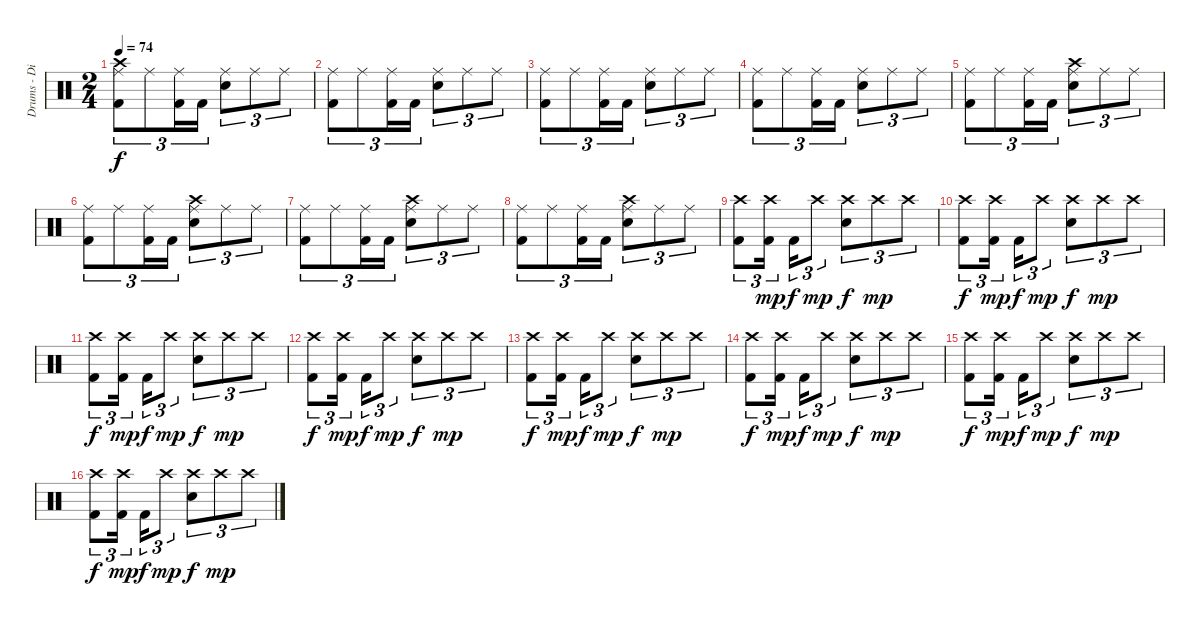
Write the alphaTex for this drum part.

\track ("Drums - Dino Campanella" "Drums - Di") {instrument percussion}
\staff {score}
\articulation defaults
\ts (2 4)
\tempo 74
\clef neutral
\ks c
("Ride (middle)" "Crash high (hit)" "Kick (hit) 2").8{tu (3 2) dy f} "Ride (middle)".8{tu (3 2)} ("Ride (middle)" "Kick (hit) 2").16{tu (3 2)} "Kick (hit) 2".16{tu (3 2)} ("Ride (middle)" "Snare (hit) 2").8{tu (3 2)} "Ride (middle)".8{tu (3 2)} "Ride (middle)".8{tu (3 2)} |
("Ride (middle)" "Kick (hit) 2").8{tu (3 2)} "Ride (middle)".8{tu (3 2)} ("Ride (middle)" "Kick (hit) 2").16{tu (3 2)} "Kick (hit) 2".16{tu (3 2)} ("Ride (middle)" "Snare (hit) 2").8{tu (3 2)} "Ride (middle)".8{tu (3 2)} "Ride (middle)".8{tu (3 2)} |
("Ride (middle)" "Kick (hit) 2").8{tu (3 2)} "Ride (middle)".8{tu (3 2)} ("Ride (middle)" "Kick (hit) 2").16{tu (3 2)} "Kick (hit) 2".16{tu (3 2)} ("Ride (middle)" "Snare (hit) 2").8{tu (3 2)} "Ride (middle)".8{tu (3 2)} "Ride (middle)".8{tu (3 2)} |
("Ride (middle)" "Kick (hit) 2").8{tu (3 2)} "Ride (middle)".8{tu (3 2)} ("Ride (middle)" "Kick (hit) 2").16{tu (3 2)} "Kick (hit) 2".16{tu (3 2)} ("Ride (middle)" "Snare (hit) 2").8{tu (3 2)} "Ride (middle)".8{tu (3 2)} "Ride (middle)".8{tu (3 2)} |
("Ride (middle)" "Kick (hit) 2").8{tu (3 2)} "Ride (middle)".8{tu (3 2)} ("Ride (middle)" "Kick (hit) 2").16{tu (3 2)} "Kick (hit) 2".16{tu (3 2)} ("Ride (middle)" "Crash high (hit)" "Snare (hit) 2").8{tu (3 2)} "Ride (middle)".8{tu (3 2)} "Ride (middle)".8{tu (3 2)} |
("Ride (middle)" "Kick (hit) 2").8{tu (3 2)} "Ride (middle)".8{tu (3 2)} ("Ride (middle)" "Kick (hit) 2").16{tu (3 2)} "Kick (hit) 2".16{tu (3 2)} ("Ride (middle)" "Crash high (hit)" "Snare (hit) 2").8{tu (3 2)} "Ride (middle)".8{tu (3 2)} "Ride (middle)".8{tu (3 2)} |
("Ride (middle)" "Kick (hit) 2").8{tu (3 2)} "Ride (middle)".8{tu (3 2)} ("Ride (middle)" "Kick (hit) 2").16{tu (3 2)} "Kick (hit) 2".16{tu (3 2)} ("Ride (middle)" "Crash high (hit)" "Snare (hit) 2").8{tu (3 2)} "Ride (middle)".8{tu (3 2)} "Ride (middle)".8{tu (3 2)} |
("Ride (middle)" "Kick (hit) 2").8{tu (3 2)} "Ride (middle)".8{tu (3 2)} ("Ride (middle)" "Kick (hit) 2").16{tu (3 2)} "Kick (hit) 2".16{tu (3 2)} ("Ride (middle)" "Crash high (hit)" "Snare (hit) 2").8{tu (3 2)} "Ride (middle)".8{tu (3 2)} "Ride (middle)".8{tu (3 2)} |
("Crash high (hit)" "Kick (hit) 2").8{tu (3 2)} ("Crash high (hit)" "Kick (hit) 2").16{tu (3 2) dy mp} "Kick (hit) 2".16{tu (3 2) dy f} "Crash high (hit)".8{tu (3 2) dy mp} ("Crash high (hit)" "Snare (hit) 2").8{tu (3 2) dy f} "Crash high (hit)".8{tu (3 2) dy mp} "Crash high (hit)".8{tu (3 2)} |
("Crash high (hit)" "Kick (hit) 2").8{tu (3 2) dy f} ("Crash high (hit)" "Kick (hit) 2").16{tu (3 2) dy mp} "Kick (hit) 2".16{tu (3 2) dy f} "Crash high (hit)".8{tu (3 2) dy mp} ("Crash high (hit)" "Snare (hit) 2").8{tu (3 2) dy f} "Crash high (hit)".8{tu (3 2) dy mp} "Crash high (hit)".8{tu (3 2)} |
("Crash high (hit)" "Kick (hit) 2").8{tu (3 2) dy f} ("Crash high (hit)" "Kick (hit) 2").16{tu (3 2) dy mp} "Kick (hit) 2".16{tu (3 2) dy f} "Crash high (hit)".8{tu (3 2) dy mp} ("Crash high (hit)" "Snare (hit) 2").8{tu (3 2) dy f} "Crash high (hit)".8{tu (3 2) dy mp} "Crash high (hit)".8{tu (3 2)} |
("Crash high (hit)" "Kick (hit) 2").8{tu (3 2) dy f} ("Crash high (hit)" "Kick (hit) 2").16{tu (3 2) dy mp} "Kick (hit) 2".16{tu (3 2) dy f} "Crash high (hit)".8{tu (3 2) dy mp} ("Crash high (hit)" "Snare (hit) 2").8{tu (3 2) dy f} "Crash high (hit)".8{tu (3 2) dy mp} "Crash high (hit)".8{tu (3 2)} |
("Crash high (hit)" "Kick (hit) 2").8{tu (3 2) dy f} ("Crash high (hit)" "Kick (hit) 2").16{tu (3 2) dy mp} "Kick (hit) 2".16{tu (3 2) dy f} "Crash high (hit)".8{tu (3 2) dy mp} ("Crash high (hit)" "Snare (hit) 2").8{tu (3 2) dy f} "Crash high (hit)".8{tu (3 2) dy mp} "Crash high (hit)".8{tu (3 2)} |
("Crash high (hit)" "Kick (hit) 2").8{tu (3 2) dy f} ("Crash high (hit)" "Kick (hit) 2").16{tu (3 2) dy mp} "Kick (hit) 2".16{tu (3 2) dy f} "Crash high (hit)".8{tu (3 2) dy mp} ("Crash high (hit)" "Snare (hit) 2").8{tu (3 2) dy f} "Crash high (hit)".8{tu (3 2) dy mp} "Crash high (hit)".8{tu (3 2)} |
("Crash high (hit)" "Kick (hit) 2").8{tu (3 2) dy f} ("Crash high (hit)" "Kick (hit) 2").16{tu (3 2) dy mp} "Kick (hit) 2".16{tu (3 2) dy f} "Crash high (hit)".8{tu (3 2) dy mp} ("Crash high (hit)" "Snare (hit) 2").8{tu (3 2) dy f} "Crash high (hit)".8{tu (3 2) dy mp} "Crash high (hit)".8{tu (3 2)} |
("Crash high (hit)" "Kick (hit) 2").8{tu (3 2) dy f} ("Crash high (hit)" "Kick (hit) 2").16{tu (3 2) dy mp} "Kick (hit) 2".16{tu (3 2) dy f} "Crash high (hit)".8{tu (3 2) dy mp} ("Crash high (hit)" "Snare (hit) 2").8{tu (3 2) dy f} "Crash high (hit)".8{tu (3 2) dy mp} "Crash high (hit)".8{tu (3 2)}
